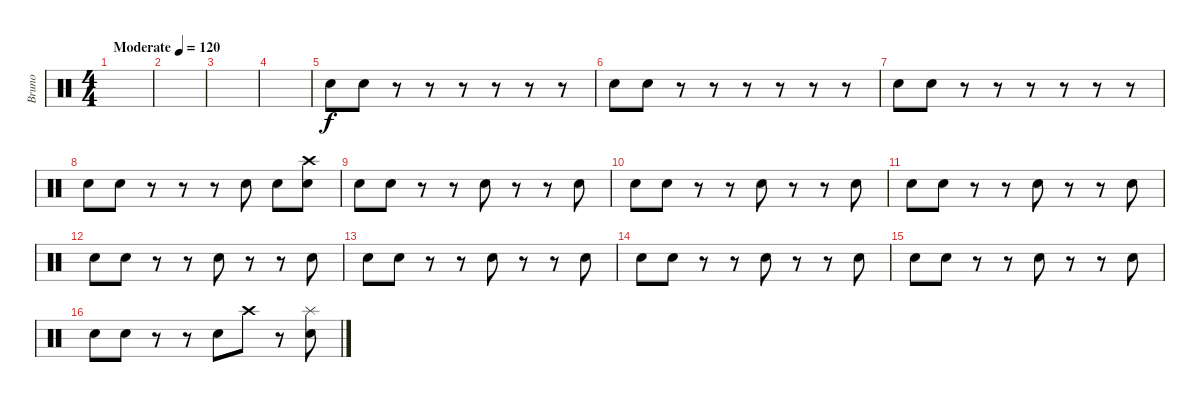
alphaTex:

\track ("Bruno" "Bruno") {instrument percussion}
\staff {score}
\articulation defaults
\ts (4 4)
\tempo (120 "Moderate")
\clef neutral
\ks c
|
|
|
|
"Electric Snare (hit)".8 "Electric Snare (hit)".8 r.8 r.8 r.8 r.8 r.8 r.8 |
"Electric Snare (hit)".8 "Electric Snare (hit)".8 r.8 r.8 r.8 r.8 r.8 r.8 |
"Electric Snare (hit)".8 "Electric Snare (hit)".8 r.8 r.8 r.8 r.8 r.8 r.8 |
"Electric Snare (hit)".8 "Electric Snare (hit)".8 r.8 r.8 r.8 "Snare (hit) 2".8 "Snare (hit) 2".8 ("Crash high (hit)" "Snare (hit) 2").8 |
"Electric Snare (hit)".8 "Electric Snare (hit)".8 r.8 r.8 "Snare (hit) 2".8 r.8 r.8 "Snare (hit) 2".8 |
"Electric Snare (hit)".8 "Electric Snare (hit)".8 r.8 r.8 "Snare (hit) 2".8 r.8 r.8 "Snare (hit) 2".8 |
"Electric Snare (hit)".8 "Electric Snare (hit)".8 r.8 r.8 "Snare (hit) 2".8 r.8 r.8 "Snare (hit) 2".8 |
"Electric Snare (hit)".8 "Electric Snare (hit)".8 r.8 r.8 "Snare (hit) 2".8 r.8 r.8 "Snare (hit) 2".8 |
"Electric Snare (hit)".8 "Electric Snare (hit)".8 r.8 r.8 "Snare (hit) 2".8 r.8 r.8 "Snare (hit) 2".8 |
"Electric Snare (hit)".8 "Electric Snare (hit)".8 r.8 r.8 "Snare (hit) 2".8 r.8 r.8 "Snare (hit) 2".8 |
"Electric Snare (hit)".8 "Electric Snare (hit)".8 r.8 r.8 "Snare (hit) 2".8 r.8 r.8 "Snare (hit) 2".8 |
"Electric Snare (hit)".8 "Electric Snare (hit)".8 r.8 r.8 "Snare (hit) 2".8 "Crash high (hit)".8 r.8 ("Splash (hit)" "Snare (hit) 2").8
